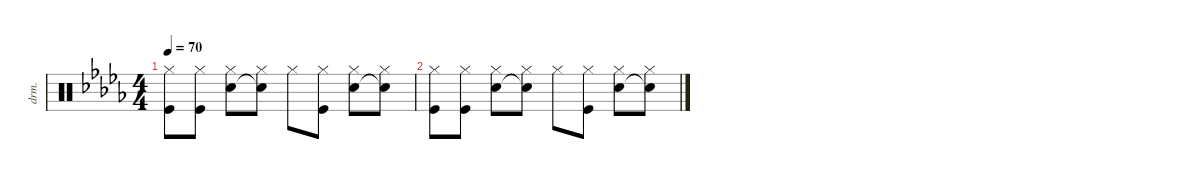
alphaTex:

\defaultSystemsLayout 4
\hideDynamics
\bracketExtendMode nobrackets
\track ("Drumkit" "drm.") {instrument percussion}
\staff {score}
\articulation defaults
\ts (4 4)
\tempo 70
\clef neutral
\ks db
("Kick (hit)"{acc forcenatural} "Hi-Hat (closed)"{acc forcenatural}).8{dy pp} ("Kick (hit)"{acc forcenatural} "Hi-Hat (closed)"{acc forcenatural}).8 ("Snare (hit) 2"{acc forcenatural} "Hi-Hat (closed)"{acc forcenatural}).8 ("Snare (hit) 2"{t acc forcenatural} "Hi-Hat (closed)"{acc forcenatural}).8 "Hi-Hat (closed)"{acc forcenatural}.8 ("Kick (hit)"{acc forcenatural} "Hi-Hat (closed)"{acc forcenatural}).8 ("Snare (hit) 2"{acc forcenatural} "Hi-Hat (closed)"{acc forcenatural}).8 ("Snare (hit) 2"{t acc forcenatural} "Hi-Hat (closed)"{acc forcenatural}).8 |
("Kick (hit)"{acc forcenatural} "Hi-Hat (closed)"{acc forcenatural}).8 ("Kick (hit)"{acc forcenatural} "Hi-Hat (closed)"{acc forcenatural}).8 ("Snare (hit) 2"{acc forcenatural} "Hi-Hat (closed)"{acc forcenatural}).8 ("Snare (hit) 2"{t acc forcenatural} "Hi-Hat (closed)"{acc forcenatural}).8 "Hi-Hat (closed)"{acc forcenatural}.8 ("Kick (hit)"{acc forcenatural} "Hi-Hat (closed)"{acc forcenatural}).8 ("Snare (hit) 2"{acc forcenatural} "Hi-Hat (closed)"{acc forcenatural}).8 ("Snare (hit) 2"{t acc forcenatural} "Hi-Hat (closed)"{acc forcenatural}).8
